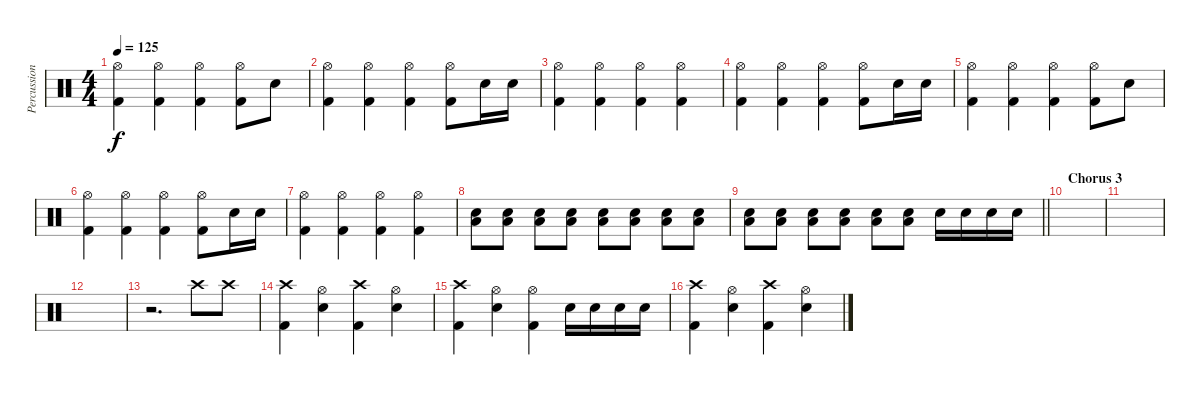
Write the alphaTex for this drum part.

\track ("Percussion" "Percussion") {instrument percussion}
\staff {score}
\articulation defaults
\ts (4 4)
\tempo 125
\clef neutral
\ks c
("Hi-Hat (open)" "Kick (hit) 2").4{dy f} ("Hi-Hat (open)" "Kick (hit) 2").4 ("Hi-Hat (open)" "Kick (hit) 2").4 ("Hi-Hat (open)" "Kick (hit) 2").8 "Snare (hit) 2".8 |
("Hi-Hat (open)" "Kick (hit) 2").4 ("Hi-Hat (open)" "Kick (hit) 2").4 ("Hi-Hat (open)" "Kick (hit) 2").4 ("Hi-Hat (open)" "Kick (hit) 2").8 "Snare (hit) 2".16 "Snare (hit) 2".16 |
("Hi-Hat (open)" "Kick (hit) 2").4 ("Hi-Hat (open)" "Kick (hit) 2").4 ("Hi-Hat (open)" "Kick (hit) 2").4 ("Hi-Hat (open)" "Kick (hit) 2").4 |
("Hi-Hat (open)" "Kick (hit) 2").4 ("Hi-Hat (open)" "Kick (hit) 2").4 ("Hi-Hat (open)" "Kick (hit) 2").4 ("Hi-Hat (open)" "Kick (hit) 2").8 "Snare (hit) 2".16 "Snare (hit) 2".16 |
("Hi-Hat (open)" "Kick (hit) 2").4 ("Hi-Hat (open)" "Kick (hit) 2").4 ("Hi-Hat (open)" "Kick (hit) 2").4 ("Hi-Hat (open)" "Kick (hit) 2").8 "Snare (hit) 2".8 |
("Hi-Hat (open)" "Kick (hit) 2").4 ("Hi-Hat (open)" "Kick (hit) 2").4 ("Hi-Hat (open)" "Kick (hit) 2").4 ("Hi-Hat (open)" "Kick (hit) 2").8 "Snare (hit) 2".16 "Snare (hit) 2".16 |
("Hi-Hat (open)" "Kick (hit) 2").4 ("Hi-Hat (open)" "Kick (hit) 2").4 ("Hi-Hat (open)" "Kick (hit) 2").4 ("Hi-Hat (open)" "Kick (hit) 2").4 |
("Snare (hit) 2" "Low Floor Tom (hit)").8 ("Snare (hit) 2" "Low Floor Tom (hit)").8 ("Snare (hit) 2" "Low Floor Tom (hit)").8 ("Snare (hit) 2" "Low Floor Tom (hit)").8 ("Snare (hit) 2" "Low Floor Tom (hit)").8 ("Snare (hit) 2" "Low Floor Tom (hit)").8 ("Snare (hit) 2" "Low Floor Tom (hit)").8 ("Snare (hit) 2" "Low Floor Tom (hit)").8 |
\barLineRight lightlight
("Snare (hit) 2" "Low Floor Tom (hit)").8 ("Snare (hit) 2" "Low Floor Tom (hit)").8 ("Snare (hit) 2" "Low Floor Tom (hit)").8 ("Snare (hit) 2" "Low Floor Tom (hit)").8 ("Snare (hit) 2" "Low Floor Tom (hit)").8 ("Snare (hit) 2" "Low Floor Tom (hit)").8 "Snare (hit) 2".16 "Snare (hit) 2".16 "Snare (hit) 2".16 "Snare (hit) 2".16 |
\section ("" "Chorus 3")
|
|
|
r.2{d} "Crash high (hit)".8 "Crash high (hit)".8 |
("Crash high (hit)" "Kick (hit) 2").4 ("Hi-Hat (open)" "Snare (hit) 2").4 ("Crash high (hit)" "Kick (hit) 2").4 ("Hi-Hat (open)" "Snare (hit) 2").4 |
("Crash high (hit)" "Kick (hit) 2").4 ("Hi-Hat (open)" "Snare (hit) 2").4 ("Hi-Hat (open)" "Kick (hit) 2").4 "Snare (hit) 2".16 "Snare (hit) 2".16 "Snare (hit) 2".16 "Snare (hit) 2".16 |
("Crash high (hit)" "Kick (hit) 2").4 ("Hi-Hat (open)" "Snare (hit) 2").4 ("Crash high (hit)" "Kick (hit) 2").4 ("Hi-Hat (open)" "Snare (hit) 2").4
